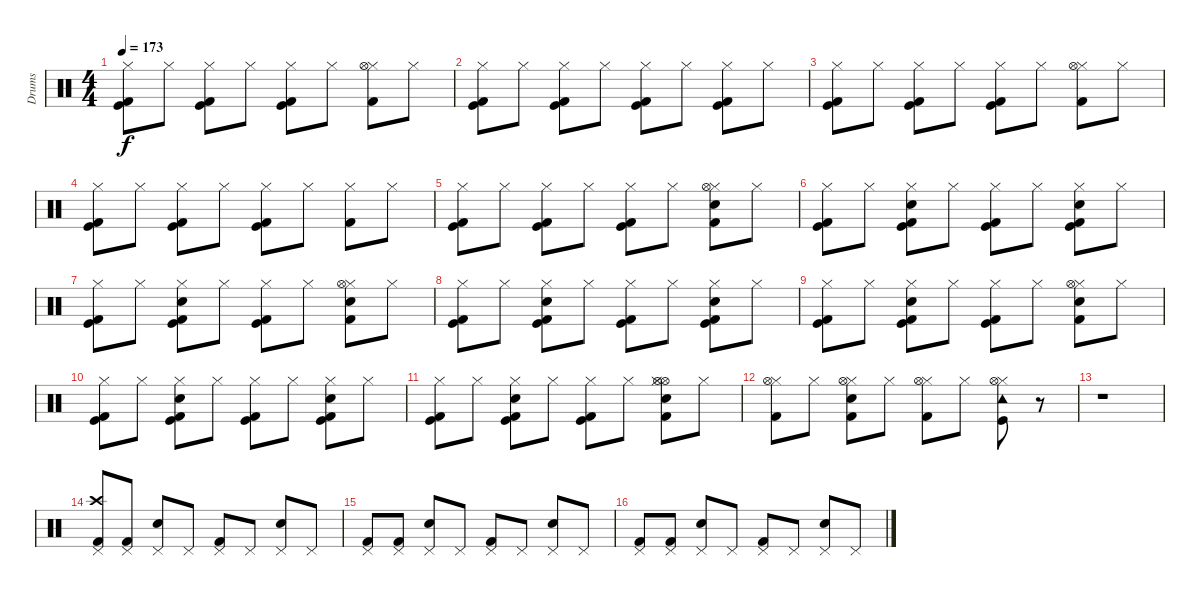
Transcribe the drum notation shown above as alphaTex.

\track ("Drums" "Drums") {instrument percussion}
\staff {score}
\articulation defaults
\ts (4 4)
\tempo 173
\clef neutral
\ks c
("Kick (hit) 2" "Hi-Hat (closed)" "Kick (hit)").8{dy f} "Hi-Hat (closed)".8 ("Kick (hit) 2" "Hi-Hat (closed)" "Kick (hit)").8 "Hi-Hat (closed)".8 ("Kick (hit) 2" "Hi-Hat (closed)" "Kick (hit)").8 "Hi-Hat (closed)".8 ("Kick (hit) 2" "Hi-Hat (closed)" "Hi-Hat (open)").8 "Hi-Hat (closed)".8 |
("Kick (hit) 2" "Hi-Hat (closed)" "Kick (hit)").8 "Hi-Hat (closed)".8 ("Kick (hit) 2" "Hi-Hat (closed)" "Kick (hit)").8 "Hi-Hat (closed)".8 ("Kick (hit) 2" "Hi-Hat (closed)" "Kick (hit)").8 "Hi-Hat (closed)".8 ("Kick (hit) 2" "Hi-Hat (closed)" "Kick (hit)").8 "Hi-Hat (closed)".8 |
("Kick (hit) 2" "Hi-Hat (closed)" "Kick (hit)").8 "Hi-Hat (closed)".8 ("Kick (hit) 2" "Hi-Hat (closed)" "Kick (hit)").8 "Hi-Hat (closed)".8 ("Kick (hit) 2" "Hi-Hat (closed)" "Kick (hit)").8 "Hi-Hat (closed)".8 ("Kick (hit) 2" "Hi-Hat (closed)" "Hi-Hat (open)").8 "Hi-Hat (closed)".8 |
("Kick (hit) 2" "Hi-Hat (closed)" "Kick (hit)").8 "Hi-Hat (closed)".8 ("Kick (hit) 2" "Hi-Hat (closed)" "Kick (hit)").8 "Hi-Hat (closed)".8 ("Kick (hit) 2" "Hi-Hat (closed)" "Kick (hit)").8 "Hi-Hat (closed)".8 ("Kick (hit) 2" "Hi-Hat (closed)").8 "Hi-Hat (closed)".8 |
("Kick (hit) 2" "Hi-Hat (closed)" "Kick (hit)").8 "Hi-Hat (closed)".8 ("Kick (hit) 2" "Hi-Hat (closed)" "Kick (hit)").8 "Hi-Hat (closed)".8 ("Kick (hit) 2" "Hi-Hat (closed)" "Kick (hit)").8 "Hi-Hat (closed)".8 ("Snare (hit) 2" "Kick (hit) 2" "Hi-Hat (closed)" "Hi-Hat (open)").8 "Hi-Hat (closed)".8 |
("Kick (hit) 2" "Hi-Hat (closed)" "Kick (hit)").8 "Hi-Hat (closed)".8 ("Snare (hit) 2" "Kick (hit) 2" "Hi-Hat (closed)" "Kick (hit)").8 "Hi-Hat (closed)".8 ("Kick (hit) 2" "Hi-Hat (closed)" "Kick (hit)").8 "Hi-Hat (closed)".8 ("Snare (hit) 2" "Kick (hit) 2" "Hi-Hat (closed)" "Kick (hit)").8 "Hi-Hat (closed)".8 |
("Kick (hit) 2" "Hi-Hat (closed)" "Kick (hit)").8 "Hi-Hat (closed)".8 ("Snare (hit) 2" "Kick (hit) 2" "Hi-Hat (closed)" "Kick (hit)").8 "Hi-Hat (closed)".8 ("Kick (hit) 2" "Hi-Hat (closed)" "Kick (hit)").8 "Hi-Hat (closed)".8 ("Snare (hit) 2" "Kick (hit) 2" "Hi-Hat (closed)" "Hi-Hat (open)").8 "Hi-Hat (closed)".8 |
("Kick (hit) 2" "Hi-Hat (closed)" "Kick (hit)").8 "Hi-Hat (closed)".8 ("Snare (hit) 2" "Kick (hit) 2" "Hi-Hat (closed)" "Kick (hit)").8 "Hi-Hat (closed)".8 ("Kick (hit) 2" "Hi-Hat (closed)" "Kick (hit)").8 "Hi-Hat (closed)".8 ("Snare (hit) 2" "Kick (hit) 2" "Hi-Hat (closed)" "Kick (hit)").8 "Hi-Hat (closed)".8 |
("Kick (hit) 2" "Hi-Hat (closed)" "Kick (hit)").8 "Hi-Hat (closed)".8 ("Snare (hit) 2" "Kick (hit) 2" "Hi-Hat (closed)" "Kick (hit)").8 "Hi-Hat (closed)".8 ("Kick (hit) 2" "Hi-Hat (closed)" "Kick (hit)").8 "Hi-Hat (closed)".8 ("Snare (hit) 2" "Kick (hit) 2" "Hi-Hat (closed)" "Hi-Hat (open)").8 "Hi-Hat (closed)".8 |
("Kick (hit) 2" "Hi-Hat (closed)" "Kick (hit)").8 "Hi-Hat (closed)".8 ("Snare (hit) 2" "Kick (hit) 2" "Hi-Hat (closed)" "Kick (hit)").8 "Hi-Hat (closed)".8 ("Kick (hit) 2" "Hi-Hat (closed)" "Kick (hit)").8 "Hi-Hat (closed)".8 ("Snare (hit) 2" "Kick (hit) 2" "Hi-Hat (closed)" "Kick (hit)").8 "Hi-Hat (closed)".8 |
("Kick (hit) 2" "Hi-Hat (closed)" "Kick (hit)").8 "Hi-Hat (closed)".8 ("Snare (hit) 2" "Kick (hit) 2" "Hi-Hat (closed)" "Kick (hit)").8 "Hi-Hat (closed)".8 ("Kick (hit) 2" "Hi-Hat (closed)" "Kick (hit)").8 "Hi-Hat (closed)".8 ("Snare (hit) 2" "Hi-Hat (open)" "Kick (hit) 2" "Hi-Hat (closed)" "Hi-Hat (open)").8 "Hi-Hat (closed)".8 |
("Kick (hit) 2" "Hi-Hat (closed)" "Hi-Hat (open)").8 "Hi-Hat (closed)".8 ("Snare (hit) 2" "Kick (hit) 2" "Hi-Hat (closed)" "Hi-Hat (open)").8 "Hi-Hat (closed)".8 ("Kick (hit) 2" "Hi-Hat (closed)" "Hi-Hat (open)").8 "Hi-Hat (closed)".8 ("Kick (hit)" "Tambourine (hit)" "Hi-Hat (closed)" "Hi-Hat (open)").8 r.8 |
r.1 |
("Crash high (hit)" "Pedal Hi-Hat (hit)" "Kick (hit) 2").8 ("Pedal Hi-Hat (hit)" "Kick (hit) 2").8 ("Pedal Hi-Hat (hit)" "Snare (hit) 2").8 "Pedal Hi-Hat (hit)".8 ("Pedal Hi-Hat (hit)" "Kick (hit) 2").8 "Pedal Hi-Hat (hit)".8 ("Pedal Hi-Hat (hit)" "Snare (hit) 2").8 "Pedal Hi-Hat (hit)".8 |
("Pedal Hi-Hat (hit)" "Kick (hit) 2").8 ("Pedal Hi-Hat (hit)" "Kick (hit) 2").8 ("Pedal Hi-Hat (hit)" "Snare (hit) 2").8 "Pedal Hi-Hat (hit)".8 ("Pedal Hi-Hat (hit)" "Kick (hit) 2").8 "Pedal Hi-Hat (hit)".8 ("Pedal Hi-Hat (hit)" "Snare (hit) 2").8 "Pedal Hi-Hat (hit)".8 |
("Pedal Hi-Hat (hit)" "Kick (hit) 2").8 ("Pedal Hi-Hat (hit)" "Kick (hit) 2").8 ("Pedal Hi-Hat (hit)" "Snare (hit) 2").8 "Pedal Hi-Hat (hit)".8 ("Pedal Hi-Hat (hit)" "Kick (hit) 2").8 "Pedal Hi-Hat (hit)".8 ("Pedal Hi-Hat (hit)" "Snare (hit) 2").8 "Pedal Hi-Hat (hit)".8
